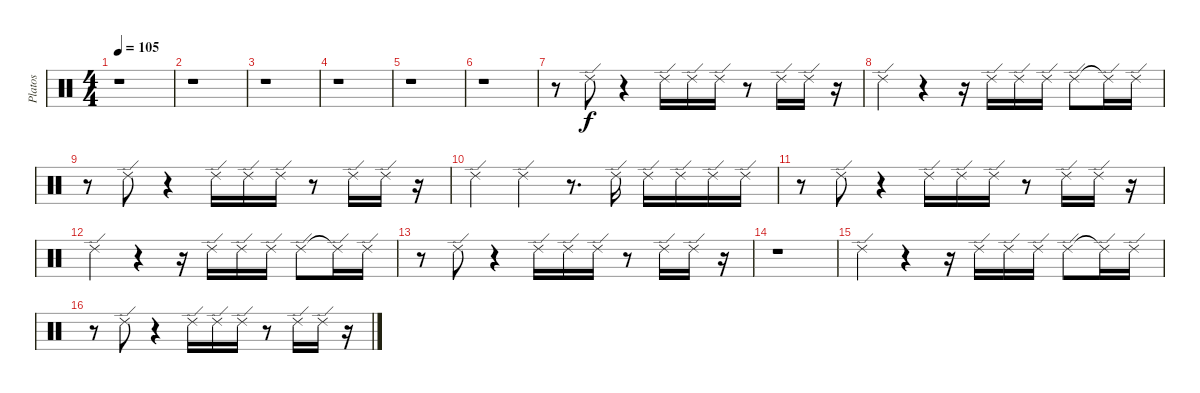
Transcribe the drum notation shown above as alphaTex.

\track ("Platos" "Platos") {instrument percussion}
\staff {score}
\articulation defaults
\ts (4 4)
\tempo 105
\clef neutral
\ks c
r.1{dy f} |
r.1 |
r.1 |
r.1 |
r.1 |
r.1 |
r.8 "Ride (edge) 2".8 r.4 "Ride (edge) 2".16 "Ride (edge) 2".16 "Ride (edge) 2".16 r.8 "Ride (edge) 2".16 "Ride (edge) 2".16 r.16 |
"Ride (edge) 2".4 r.4 r.16 "Ride (edge) 2".16 "Ride (edge) 2".16 "Ride (edge) 2".16 "Ride (edge) 2".8 "Ride (edge) 2"{t}.16 "Ride (edge) 2".16 |
r.8 "Ride (edge) 2".8 r.4 "Ride (edge) 2".16 "Ride (edge) 2".16 "Ride (edge) 2".16 r.8 "Ride (edge) 2".16 "Ride (edge) 2".16 r.16 |
"Ride (edge) 2".4 "Ride (edge) 2".4 r.8{d} "Ride (edge) 2".16 "Ride (edge) 2".16 "Ride (edge) 2".16 "Ride (edge) 2".16 "Ride (edge) 2".16 |
r.8 "Ride (edge) 2".8 r.4 "Ride (edge) 2".16 "Ride (edge) 2".16 "Ride (edge) 2".16 r.8 "Ride (edge) 2".16 "Ride (edge) 2".16 r.16 |
"Ride (edge) 2".4 r.4 r.16 "Ride (edge) 2".16 "Ride (edge) 2".16 "Ride (edge) 2".16 "Ride (edge) 2".8 "Ride (edge) 2"{t}.16 "Ride (edge) 2".16 |
r.8 "Ride (edge) 2".8 r.4 "Ride (edge) 2".16 "Ride (edge) 2".16 "Ride (edge) 2".16 r.8 "Ride (edge) 2".16 "Ride (edge) 2".16 r.16 |
r.1 |
"Ride (edge) 2".4 r.4 r.16 "Ride (edge) 2".16 "Ride (edge) 2".16 "Ride (edge) 2".16 "Ride (edge) 2".8 "Ride (edge) 2"{t}.16 "Ride (edge) 2".16 |
r.8 "Ride (edge) 2".8 r.4 "Ride (edge) 2".16 "Ride (edge) 2".16 "Ride (edge) 2".16 r.8 "Ride (edge) 2".16 "Ride (edge) 2".16 r.16
